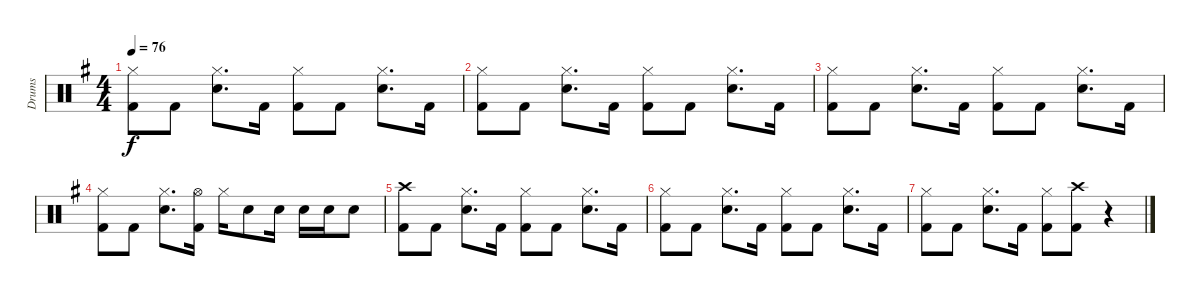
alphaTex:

\track ("Drums" "Drums") {instrument percussion}
\staff {score}
\articulation defaults
\ts (4 4)
\tempo 76
\clef neutral
\ks eminor
("Hi-Hat (closed)" "Kick (hit) 2").8{dy f} "Kick (hit) 2".8 ("Hi-Hat (closed)" "Snare (hit) 2").8{d} "Kick (hit) 2".16 ("Hi-Hat (closed)" "Kick (hit) 2").8 "Kick (hit) 2".8 ("Hi-Hat (closed)" "Snare (hit) 2").8{d} "Kick (hit) 2".16 |
("Hi-Hat (closed)" "Kick (hit) 2").8 "Kick (hit) 2".8 ("Hi-Hat (closed)" "Snare (hit) 2").8{d} "Kick (hit) 2".16 ("Hi-Hat (closed)" "Kick (hit) 2").8 "Kick (hit) 2".8 ("Hi-Hat (closed)" "Snare (hit) 2").8{d} "Kick (hit) 2".16 |
("Hi-Hat (closed)" "Kick (hit) 2").8 "Kick (hit) 2".8 ("Hi-Hat (closed)" "Snare (hit) 2").8{d} "Kick (hit) 2".16 ("Hi-Hat (closed)" "Kick (hit) 2").8 "Kick (hit) 2".8 ("Hi-Hat (closed)" "Snare (hit) 2").8{d} "Kick (hit) 2".16 |
("Hi-Hat (closed)" "Kick (hit) 2").8 "Kick (hit) 2".8 ("Hi-Hat (closed)" "Snare (hit) 2").8{d} ("Hi-Hat (open)" "Kick (hit) 2").16 "Hi-Hat (closed)".16 "Snare (hit) 2".8 "Snare (hit) 2".16 "Snare (hit) 2".16 "Snare (hit) 2".16 "Snare (hit) 2".8 |
("Crash high (hit)" "Kick (hit) 2").8 "Kick (hit) 2".8 ("Hi-Hat (closed)" "Snare (hit) 2").8{d} "Kick (hit) 2".16 ("Hi-Hat (closed)" "Kick (hit) 2").8 "Kick (hit) 2".8 ("Hi-Hat (closed)" "Snare (hit) 2").8{d} "Kick (hit) 2".16 |
("Hi-Hat (closed)" "Kick (hit) 2").8 "Kick (hit) 2".8 ("Hi-Hat (closed)" "Snare (hit) 2").8{d} "Kick (hit) 2".16 ("Hi-Hat (closed)" "Kick (hit) 2").8 "Kick (hit) 2".8 ("Hi-Hat (closed)" "Snare (hit) 2").8{d} "Kick (hit) 2".16 |
("Hi-Hat (closed)" "Kick (hit) 2").8 "Kick (hit) 2".8 ("Hi-Hat (closed)" "Snare (hit) 2").8{d} "Kick (hit) 2".16 ("Hi-Hat (closed)" "Kick (hit) 2").8 ("Crash high (hit)" "Kick (hit) 2").8 r.4
